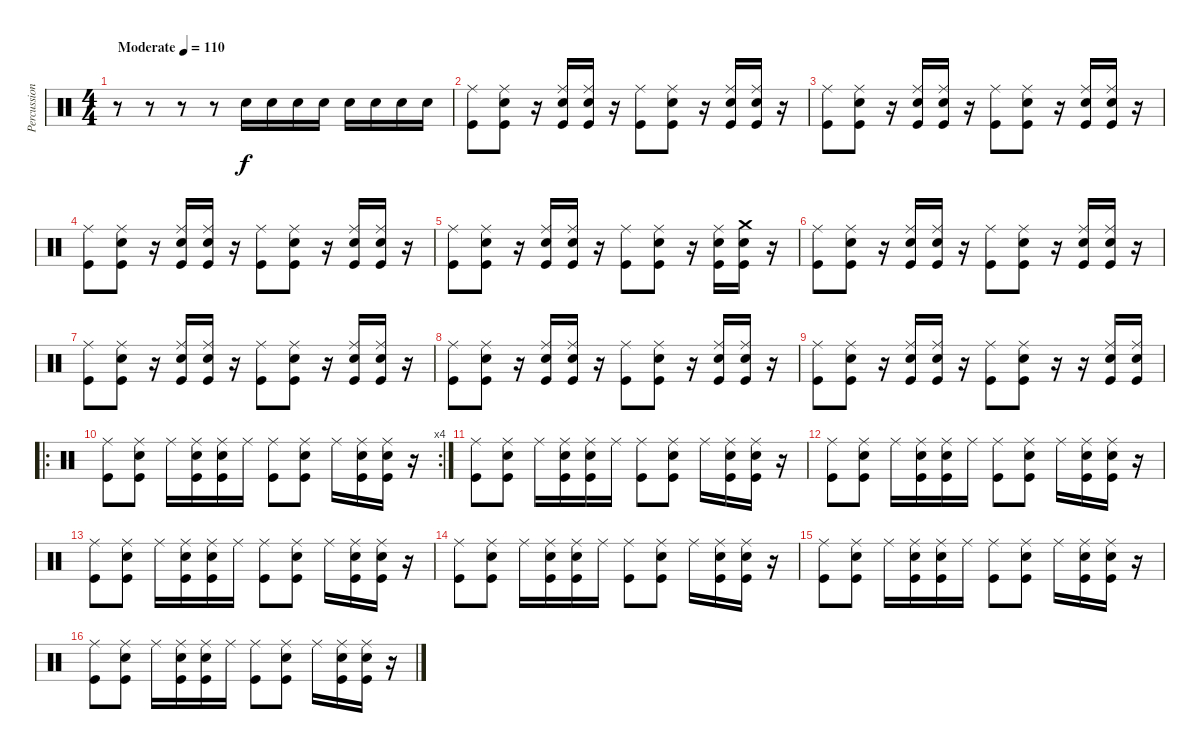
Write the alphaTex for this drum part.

\track ("Percussion" "Percussion") {instrument percussion}
\staff {score}
\articulation defaults
\ts (4 4)
\tempo (110 "Moderate")
\clef neutral
\ks c
r.8{dy f} r.8 r.8 r.8 "Snare (hit) 2".16 "Snare (hit) 2".16 "Snare (hit) 2".16 "Snare (hit) 2".16 "Snare (hit) 2".16 "Snare (hit) 2".16 "Snare (hit) 2".16 "Snare (hit) 2".16 |
("Ride (middle)" "Kick (hit)").8 ("Snare (hit) 2" "Ride (middle)" "Kick (hit)").8 r.16 ("Snare (hit) 2" "Ride (middle)" "Kick (hit)").16 ("Snare (hit) 2" "Ride (middle)" "Kick (hit)").16 r.16 ("Ride (middle)" "Kick (hit)").8 ("Snare (hit) 2" "Ride (middle)" "Kick (hit)").8 r.16 ("Snare (hit) 2" "Ride (middle)" "Kick (hit)").16 ("Snare (hit) 2" "Ride (middle)" "Kick (hit)").16 r.16 |
("Ride (middle)" "Kick (hit)").8 ("Snare (hit) 2" "Ride (middle)" "Kick (hit)").8 r.16 ("Snare (hit) 2" "Ride (middle)" "Kick (hit)").16 ("Snare (hit) 2" "Ride (middle)" "Kick (hit)").16 r.16 ("Ride (middle)" "Kick (hit)").8 ("Snare (hit) 2" "Ride (middle)" "Kick (hit)").8 r.16 ("Snare (hit) 2" "Ride (middle)" "Kick (hit)").16 ("Snare (hit) 2" "Ride (middle)" "Kick (hit)").16 r.16 |
("Ride (middle)" "Kick (hit)").8 ("Snare (hit) 2" "Ride (middle)" "Kick (hit)").8 r.16 ("Snare (hit) 2" "Ride (middle)" "Kick (hit)").16 ("Snare (hit) 2" "Ride (middle)" "Kick (hit)").16 r.16 ("Ride (middle)" "Kick (hit)").8 ("Snare (hit) 2" "Ride (middle)" "Kick (hit)").8 r.16 ("Snare (hit) 2" "Ride (middle)" "Kick (hit)").16 ("Snare (hit) 2" "Ride (middle)" "Kick (hit)").16 r.16 |
("Ride (middle)" "Kick (hit)").8 ("Snare (hit) 2" "Ride (middle)" "Kick (hit)").8 r.16 ("Snare (hit) 2" "Ride (middle)" "Kick (hit)").16 ("Snare (hit) 2" "Ride (middle)" "Kick (hit)").16 r.16 ("Ride (middle)" "Kick (hit)").8 ("Snare (hit) 2" "Ride (middle)" "Kick (hit)").8 r.16 ("Snare (hit) 2" "Ride (middle)" "Kick (hit)").16 ("Snare (hit) 2" "Crash medium (hit)" "Kick (hit)").16 r.16 |
("Ride (middle)" "Kick (hit)").8 ("Snare (hit) 2" "Ride (middle)" "Kick (hit)").8 r.16 ("Snare (hit) 2" "Ride (middle)" "Kick (hit)").16 ("Snare (hit) 2" "Ride (middle)" "Kick (hit)").16 r.16 ("Ride (middle)" "Kick (hit)").8 ("Snare (hit) 2" "Ride (middle)" "Kick (hit)").8 r.16 ("Snare (hit) 2" "Ride (middle)" "Kick (hit)").16 ("Snare (hit) 2" "Ride (middle)" "Kick (hit)").16 r.16 |
("Ride (middle)" "Kick (hit)").8 ("Snare (hit) 2" "Ride (middle)" "Kick (hit)").8 r.16 ("Snare (hit) 2" "Ride (middle)" "Kick (hit)").16 ("Snare (hit) 2" "Ride (middle)" "Kick (hit)").16 r.16 ("Ride (middle)" "Kick (hit)").8 ("Snare (hit) 2" "Ride (middle)" "Kick (hit)").8 r.16 ("Snare (hit) 2" "Ride (middle)" "Kick (hit)").16 ("Snare (hit) 2" "Ride (middle)" "Kick (hit)").16 r.16 |
("Ride (middle)" "Kick (hit)").8 ("Snare (hit) 2" "Ride (middle)" "Kick (hit)").8 r.16 ("Snare (hit) 2" "Ride (middle)" "Kick (hit)").16 ("Snare (hit) 2" "Ride (middle)" "Kick (hit)").16 r.16 ("Ride (middle)" "Kick (hit)").8 ("Snare (hit) 2" "Ride (middle)" "Kick (hit)").8 r.16 ("Snare (hit) 2" "Ride (middle)" "Kick (hit)").16 ("Snare (hit) 2" "Ride (middle)" "Kick (hit)").16 r.16 |
("Ride (middle)" "Kick (hit)").8 ("Snare (hit) 2" "Ride (middle)" "Kick (hit)").8 r.16 ("Snare (hit) 2" "Ride (middle)" "Kick (hit)").16 ("Snare (hit) 2" "Ride (middle)" "Kick (hit)").16 r.16 ("Ride (middle)" "Kick (hit)").8 ("Snare (hit) 2" "Ride (middle)" "Kick (hit)").8 r.16 r.16 ("Snare (hit) 2" "Ride (middle)" "Kick (hit)").16 ("Snare (hit) 2" "Ride (middle)" "Kick (hit)").16 |
\ro
\rc 4
("Ride (middle)" "Kick (hit)").8 ("Snare (hit) 2" "Ride (middle)" "Kick (hit)").8 "Ride (middle)".16 ("Snare (hit) 2" "Ride (middle)" "Kick (hit)").16 ("Snare (hit) 2" "Ride (middle)" "Kick (hit)").16 "Ride (middle)".16 ("Ride (middle)" "Kick (hit)").8 ("Snare (hit) 2" "Ride (middle)" "Kick (hit)").8 "Ride (middle)".16 ("Snare (hit) 2" "Ride (middle)" "Kick (hit)").16 ("Snare (hit) 2" "Ride (middle)" "Kick (hit)").16 r.16 |
("Ride (middle)" "Kick (hit)").8 ("Snare (hit) 2" "Ride (middle)" "Kick (hit)").8 "Ride (middle)".16 ("Snare (hit) 2" "Ride (middle)" "Kick (hit)").16 ("Snare (hit) 2" "Ride (middle)" "Kick (hit)").16 "Ride (middle)".16 ("Ride (middle)" "Kick (hit)").8 ("Snare (hit) 2" "Ride (middle)" "Kick (hit)").8 "Ride (middle)".16 ("Snare (hit) 2" "Ride (middle)" "Kick (hit)").16 ("Snare (hit) 2" "Ride (middle)" "Kick (hit)").16 r.16 |
("Ride (middle)" "Kick (hit)").8 ("Snare (hit) 2" "Ride (middle)" "Kick (hit)").8 "Ride (middle)".16 ("Snare (hit) 2" "Ride (middle)" "Kick (hit)").16 ("Snare (hit) 2" "Ride (middle)" "Kick (hit)").16 "Ride (middle)".16 ("Ride (middle)" "Kick (hit)").8 ("Snare (hit) 2" "Ride (middle)" "Kick (hit)").8 "Ride (middle)".16 ("Snare (hit) 2" "Ride (middle)" "Kick (hit)").16 ("Snare (hit) 2" "Ride (middle)" "Kick (hit)").16 r.16 |
("Ride (middle)" "Kick (hit)").8 ("Snare (hit) 2" "Ride (middle)" "Kick (hit)").8 "Ride (middle)".16 ("Snare (hit) 2" "Ride (middle)" "Kick (hit)").16 ("Snare (hit) 2" "Ride (middle)" "Kick (hit)").16 "Ride (middle)".16 ("Ride (middle)" "Kick (hit)").8 ("Snare (hit) 2" "Ride (middle)" "Kick (hit)").8 "Ride (middle)".16 ("Snare (hit) 2" "Ride (middle)" "Kick (hit)").16 ("Snare (hit) 2" "Ride (middle)" "Kick (hit)").16 r.16 |
("Ride (middle)" "Kick (hit)").8 ("Snare (hit) 2" "Ride (middle)" "Kick (hit)").8 "Ride (middle)".16 ("Snare (hit) 2" "Ride (middle)" "Kick (hit)").16 ("Snare (hit) 2" "Ride (middle)" "Kick (hit)").16 "Ride (middle)".16 ("Ride (middle)" "Kick (hit)").8 ("Snare (hit) 2" "Ride (middle)" "Kick (hit)").8 "Ride (middle)".16 ("Snare (hit) 2" "Ride (middle)" "Kick (hit)").16 ("Snare (hit) 2" "Ride (middle)" "Kick (hit)").16 r.16 |
("Ride (middle)" "Kick (hit)").8 ("Snare (hit) 2" "Ride (middle)" "Kick (hit)").8 "Ride (middle)".16 ("Snare (hit) 2" "Ride (middle)" "Kick (hit)").16 ("Snare (hit) 2" "Ride (middle)" "Kick (hit)").16 "Ride (middle)".16 ("Ride (middle)" "Kick (hit)").8 ("Snare (hit) 2" "Ride (middle)" "Kick (hit)").8 "Ride (middle)".16 ("Snare (hit) 2" "Ride (middle)" "Kick (hit)").16 ("Snare (hit) 2" "Ride (middle)" "Kick (hit)").16 r.16 |
("Ride (middle)" "Kick (hit)").8 ("Snare (hit) 2" "Ride (middle)" "Kick (hit)").8 "Ride (middle)".16 ("Snare (hit) 2" "Ride (middle)" "Kick (hit)").16 ("Snare (hit) 2" "Ride (middle)" "Kick (hit)").16 "Ride (middle)".16 ("Ride (middle)" "Kick (hit)").8 ("Snare (hit) 2" "Ride (middle)" "Kick (hit)").8 "Ride (middle)".16 ("Snare (hit) 2" "Ride (middle)" "Kick (hit)").16 ("Snare (hit) 2" "Ride (middle)" "Kick (hit)").16 r.16
